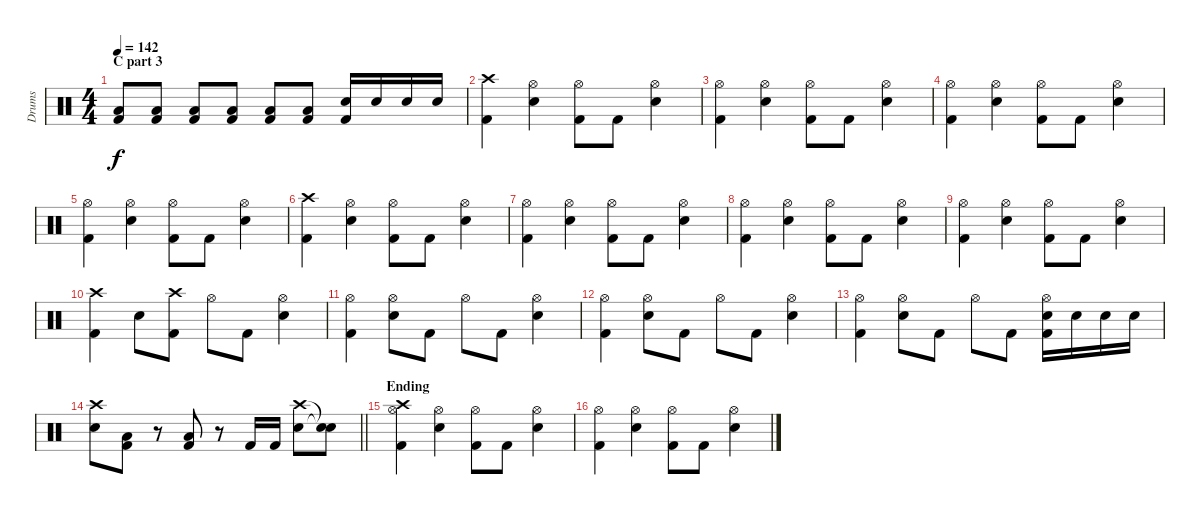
\track ("Drums" "Drums") {instrument percussion}
\staff {score}
\articulation defaults
\ts (4 4)
\section ("" "C part 3")
\tempo 142
\clef neutral
\ks c
("Low Tom (hit)" "Kick (hit) 2").8{dy f} ("Low Tom (hit)" "Kick (hit) 2").8 ("Low Tom (hit)" "Kick (hit) 2").8 ("Low Tom (hit)" "Kick (hit) 2").8 ("Kick (hit) 2" "Low Tom (hit)").8 ("Kick (hit) 2" "Low Tom (hit)").8 ("Snare (hit) 2" "Kick (hit) 2").16 "Snare (hit) 2".16 "Snare (hit) 2".16 "Snare (hit) 2".16 |
("Crash high (hit)" "Kick (hit) 2").4 ("Hi-Hat (open)" "Snare (hit) 2").4 ("Hi-Hat (open)" "Kick (hit) 2").8 "Kick (hit) 2".8 ("Hi-Hat (open)" "Snare (hit) 2").4 |
("Hi-Hat (open)" "Kick (hit) 2").4 ("Hi-Hat (open)" "Snare (hit) 2").4 ("Hi-Hat (open)" "Kick (hit) 2").8 "Kick (hit) 2".8 ("Hi-Hat (open)" "Snare (hit) 2").4 |
("Hi-Hat (open)" "Kick (hit) 2").4 ("Hi-Hat (open)" "Snare (hit) 2").4 ("Hi-Hat (open)" "Kick (hit) 2").8 "Kick (hit) 2".8 ("Hi-Hat (open)" "Snare (hit) 2").4 |
("Hi-Hat (open)" "Kick (hit) 2").4 ("Hi-Hat (open)" "Snare (hit) 2").4 ("Hi-Hat (open)" "Kick (hit) 2").8 "Kick (hit) 2".8 ("Hi-Hat (open)" "Snare (hit) 2").4 |
("Crash high (hit)" "Kick (hit) 2").4 ("Hi-Hat (open)" "Snare (hit) 2").4 ("Hi-Hat (open)" "Kick (hit) 2").8 "Kick (hit) 2".8 ("Hi-Hat (open)" "Snare (hit) 2").4 |
("Hi-Hat (open)" "Kick (hit) 2").4 ("Hi-Hat (open)" "Snare (hit) 2").4 ("Hi-Hat (open)" "Kick (hit) 2").8 "Kick (hit) 2".8 ("Hi-Hat (open)" "Snare (hit) 2").4 |
("Hi-Hat (open)" "Kick (hit) 2").4 ("Hi-Hat (open)" "Snare (hit) 2").4 ("Hi-Hat (open)" "Kick (hit) 2").8 "Kick (hit) 2".8 ("Hi-Hat (open)" "Snare (hit) 2").4 |
("Hi-Hat (open)" "Kick (hit) 2").4 ("Hi-Hat (open)" "Snare (hit) 2").4 ("Hi-Hat (open)" "Kick (hit) 2").8 "Kick (hit) 2".8 ("Hi-Hat (open)" "Snare (hit) 2").4 |
("Crash high (hit)" "Kick (hit) 2").4 "Snare (hit) 2".8 ("Crash high (hit)" "Kick (hit) 2").8 "Hi-Hat (open)".8 "Kick (hit) 2".8 ("Hi-Hat (open)" "Snare (hit) 2").4 |
("Hi-Hat (open)" "Kick (hit) 2").4 ("Hi-Hat (open)" "Snare (hit) 2").8 "Kick (hit) 2".8 "Hi-Hat (open)".8 "Kick (hit) 2".8 ("Hi-Hat (open)" "Snare (hit) 2").4 |
("Hi-Hat (open)" "Kick (hit) 2").4 ("Hi-Hat (open)" "Snare (hit) 2").8 "Kick (hit) 2".8 "Hi-Hat (open)".8 "Kick (hit) 2".8 ("Hi-Hat (open)" "Snare (hit) 2").4 |
("Hi-Hat (open)" "Kick (hit) 2").4 ("Hi-Hat (open)" "Snare (hit) 2").8 "Kick (hit) 2".8 "Hi-Hat (open)".8 "Kick (hit) 2".8 ("Hi-Hat (open)" "Snare (hit) 2" "Kick (hit) 2").16 "Snare (hit) 2".16 "Snare (hit) 2".16 "Snare (hit) 2".16 |
\barLineRight lightlight
("Crash high (hit)" "Snare (hit) 2").8 ("Low Tom (hit)" "Kick (hit) 2").8 r.8 ("Low Tom (hit)" "Kick (hit) 2").8 r.8 "Kick (hit) 2".16 "Kick (hit) 2".16 ("Crash high (hit)" "Snare (hit) 2").8 ("Snare (hit)"{t} "Snare (hit)"{t}).8 |
\section ("" "Ending")
("Crash high (hit)" "Hi-Hat (open)" "Kick (hit) 2").4 ("Hi-Hat (open)" "Snare (hit) 2").4 ("Hi-Hat (open)" "Kick (hit) 2").8 "Kick (hit) 2".8 ("Hi-Hat (open)" "Snare (hit) 2").4 |
("Hi-Hat (open)" "Kick (hit) 2").4 ("Hi-Hat (open)" "Snare (hit) 2").4 ("Hi-Hat (open)" "Kick (hit) 2").8 "Kick (hit) 2".8 ("Hi-Hat (open)" "Snare (hit) 2").4
